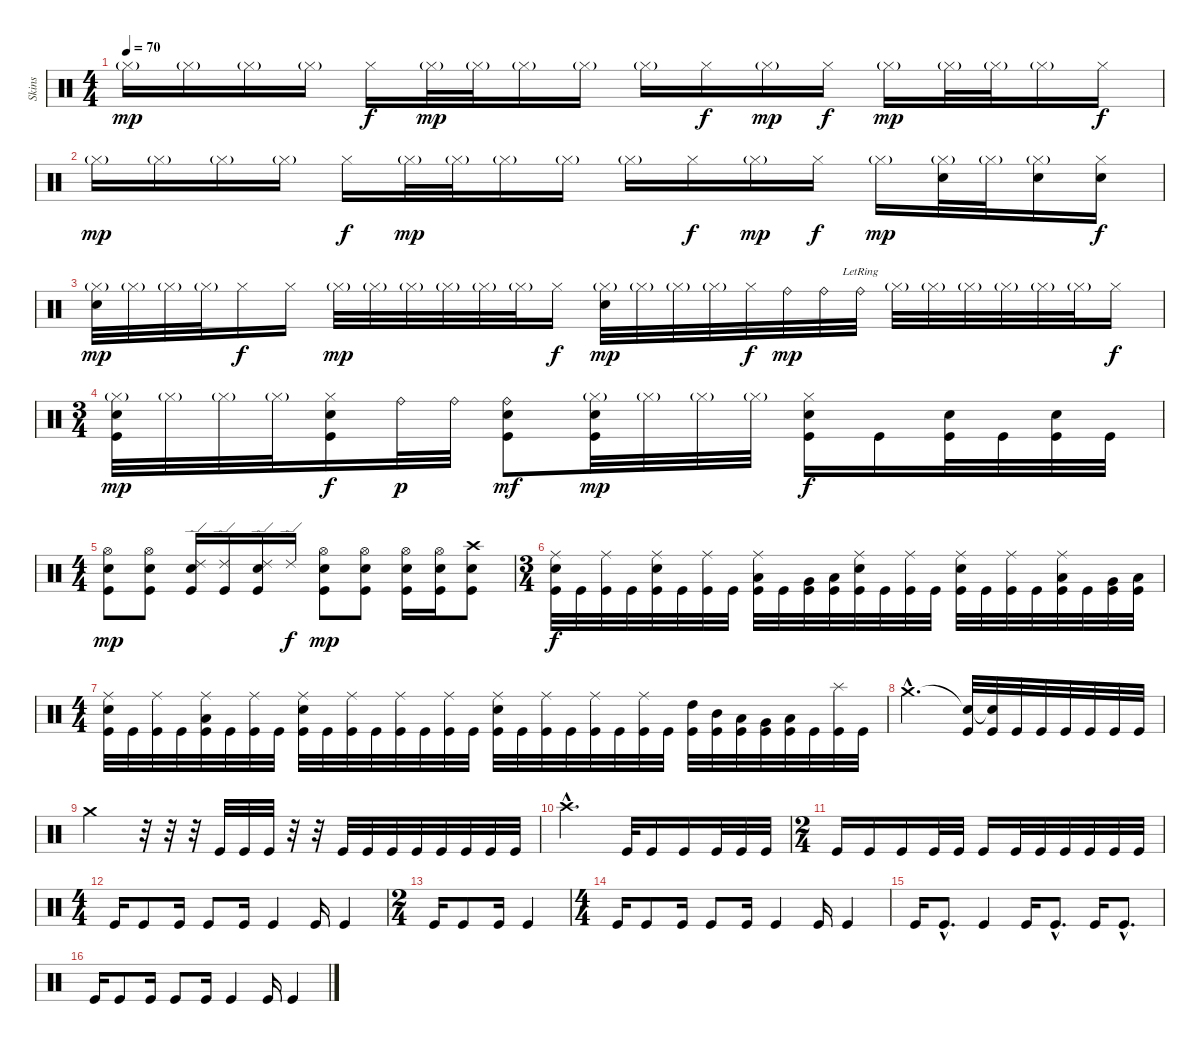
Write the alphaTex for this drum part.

\track ("Skins" "Skins") {instrument percussion}
\staff {score}
\articulation defaults
\ts (4 4)
\tempo 70
\clef neutral
\ks c "Hi-Hat (closed)"{g}.16{dy mp} "Hi-Hat (closed)"{g}.16 "Hi-Hat (closed)"{g}.16 "Hi-Hat (closed)"{g}.16 "Hi-Hat (closed)".16{dy f} "Hi-Hat (closed)"{g}.32{dy mp} "Hi-Hat (closed)"{g}.32 "Hi-Hat (closed)"{g}.16 "Hi-Hat (closed)"{g}.16 "Hi-Hat (closed)"{g}.16 "Hi-Hat (closed)".16{dy f} "Hi-Hat (closed)"{g}.16{dy mp} "Hi-Hat (closed)".16{dy f} "Hi-Hat (closed)"{g}.16{dy mp} "Hi-Hat (closed)"{g}.32 "Hi-Hat (closed)"{g}.32 "Hi-Hat (closed)"{g}.16 "Hi-Hat (closed)".16{dy f}
|
"Hi-Hat (closed)"{g}.16{dy mp} "Hi-Hat (closed)"{g}.16 "Hi-Hat (closed)"{g}.16 "Hi-Hat (closed)"{g}.16 "Hi-Hat (closed)".16{dy f} "Hi-Hat (closed)"{g}.32{dy mp} "Hi-Hat (closed)"{g}.32 "Hi-Hat (closed)"{g}.16 "Hi-Hat (closed)"{g}.16 "Hi-Hat (closed)"{g}.16 "Hi-Hat (closed)".16{dy f} "Hi-Hat (closed)"{g}.16{dy mp} "Hi-Hat (closed)".16{dy f} "Hi-Hat (closed)"{g}.16{dy mp} ("Hi-Hat (closed)"{g} "Electric Snare (hit)").32 "Hi-Hat (closed)"{g}.32 ("Hi-Hat (closed)"{g} "Electric Snare (hit)").16 ("Hi-Hat (closed)" "Snare (hit) 2").16{dy f} |
("Hi-Hat (closed)"{g} "Snare (hit) 2").32{dy mp} "Hi-Hat (closed)"{g}.32 "Hi-Hat (closed)"{g}.32 "Hi-Hat (closed)"{g}.32 "Hi-Hat (closed)".16{dy f} "Hi-Hat (closed)".16 "Hi-Hat (closed)"{g}.32{dy mp} "Hi-Hat (closed)"{g}.32 "Hi-Hat (closed)"{g}.32 "Hi-Hat (closed)"{g}.32 "Hi-Hat (closed)"{g}.32 "Hi-Hat (closed)"{g}.32 "Hi-Hat (closed)".16{dy f} ("Hi-Hat (closed)"{g} "Snare (hit) 2").32{dy mp} "Hi-Hat (closed)"{g}.32 "Hi-Hat (closed)"{g}.32 "Hi-Hat (closed)"{g}.32 "Hi-Hat (closed)".32{dy f} "Ride (bell)".32{dy mp} "Ride (bell)".32 "Ride (bell)"{lr}.32 "Hi-Hat (closed)"{g}.32 "Hi-Hat (closed)"{g}.32 "Hi-Hat (closed)"{g}.32 "Hi-Hat (closed)"{g}.32 "Hi-Hat (closed)"{g}.32 "Hi-Hat (closed)"{g}.32 "Hi-Hat (closed)".16{dy f} |
\ts (3 4)
("Hi-Hat (closed)"{g} "Snare (hit) 2" "Kick (hit)").32{dy mp} "Hi-Hat (closed)"{g}.32 "Hi-Hat (closed)"{g}.32 "Hi-Hat (closed)"{g}.32 ("Hi-Hat (closed)" "Snare (hit) 2" "Kick (hit)").16{dy f} "Ride (bell)".32{dy p} "Ride (bell)".32 ("Ride (bell)" "Snare (hit) 2" "Kick (hit)").8{dy mf} ("Hi-Hat (closed)"{g} "Snare (hit) 2" "Kick (hit)").32{dy mp} "Hi-Hat (closed)"{g}.32 "Hi-Hat (closed)"{g}.32 "Hi-Hat (closed)"{g}.32 ("Hi-Hat (closed)" "Snare (hit) 2" "Kick (hit)").16{dy f} "Kick (hit)".16 ("Snare (hit) 2" "Kick (hit)").32 "Kick (hit)".32 ("Snare (hit) 2" "Kick (hit)").32 "Kick (hit)".32 |
\ts (4 4)
("Hi-Hat (open)" "Snare (hit) 2" "Kick (hit)").8{dy mp} ("Hi-Hat (open)" "Snare (hit) 2" "Kick (hit)").8 ("Ride (edge) 2" "Electric Snare (hit)" "Kick (hit)").16 ("Ride (edge) 2" "Kick (hit)").16 ("Ride (edge) 2" "Electric Snare (hit)" "Kick (hit)").16 "Ride (edge) 2".16{dy f} ("Hi-Hat (open)" "Snare (hit) 2" "Kick (hit)").8{dy mp} ("Hi-Hat (open)" "Snare (hit) 2" "Kick (hit)").8 ("Hi-Hat (open)" "Snare (hit) 2" "Kick (hit)").16 ("Hi-Hat (open)" "Snare (hit) 2" "Kick (hit)").16 ("Crash high (hit)" "Electric Snare (hit)" "Kick (hit)").8 |
\ts (3 4)
("Ride (middle)" "Snare (hit) 2" "Kick (hit)").32{dy f} "Kick (hit)".32 ("Ride (middle)" "Kick (hit)").32 "Kick (hit)".32 ("Ride (middle)" "Snare (hit) 2" "Kick (hit)").32 "Kick (hit)".32 ("Ride (middle)" "Kick (hit)").32 "Kick (hit)".32 ("Ride (middle)" "Low Tom (hit)" "Kick (hit)").32 "Kick (hit)".32 ("Very Low Tom (hit)" "Kick (hit)").32 ("Low Floor Tom (hit)" "Kick (hit)").32 ("Ride (middle)" "Snare (hit) 2" "Kick (hit)").32 "Kick (hit)".32 ("Ride (middle)" "Kick (hit)").32 "Kick (hit)".32 ("Ride (middle)" "Snare (hit) 2" "Kick (hit)").32 "Kick (hit)".32 ("Ride (middle)" "Kick (hit)").32 "Kick (hit)".32 ("Ride (middle)" "Low Tom (hit)" "Kick (hit)").32 "Kick (hit)".32 ("Very Low Tom (hit)" "Kick (hit)").32 ("Low Floor Tom (hit)" "Kick (hit)").32 |
\ts (4 4)
("Ride (middle)" "Electric Snare (hit)" "Kick (hit)").32 "Kick (hit)".32 ("Ride (middle)" "Kick (hit)").32 "Kick (hit)".32 ("Ride (middle)" "Low Floor Tom (hit)" "Kick (hit)").32 "Kick (hit)".32 ("Ride (middle)" "Kick (hit)").32 "Kick (hit)".32 ("Ride (middle)" "Electric Snare (hit)" "Kick (hit)").32 "Kick (hit)".32 ("Ride (middle)" "Kick (hit)").32 "Kick (hit)".32 ("Ride (middle)" "Kick (hit)").32 "Kick (hit)".32 ("Ride (middle)" "Kick (hit)").32 "Kick (hit)".32 ("Ride (middle)" "Electric Snare (hit)" "Kick (hit)").32 "Kick (hit)".32 ("Ride (middle)" "Kick (hit)").32 "Kick (hit)".32 ("Ride (middle)" "Kick (hit)").32 "Kick (hit)".32 ("Ride (middle)" "Kick (hit)").32 "Kick (hit)".32 ("High Tom (hit)" "Kick (hit)").32 ("Mid Tom (hit)" "Kick (hit)").32 ("Low Tom (hit)" "Kick (hit)").32 ("Very Low Tom (hit)" "Kick (hit)").32 ("Low Floor Tom (hit)" "Kick (hit)").32 "Kick (hit)".32 ("Splash (hit)" "Kick (hit)").32 "Kick (hit)".32 |
"Crash medium (hit)"{hac}.2{d} ("Snare (hit)"{t} "Kick (hit)").32 ("Snare (hit)"{t} "Kick (hit)").32 "Kick (hit)".32 "Kick (hit)".32 "Kick (hit)".32 "Kick (hit)".32 "Kick (hit)".32 "Kick (hit)".32 |
"Crash medium (hit)".2 r.32 r.32 r.32 "Kick (hit)".32 "Kick (hit)".32 "Kick (hit)".32 r.32 r.32 "Kick (hit)".32 "Kick (hit)".32 "Kick (hit)".32 "Kick (hit)".32 "Kick (hit)".32 "Kick (hit)".32 "Kick (hit)".32 "Kick (hit)".32 |
"Crash high (hit)"{hac}.2{d} "Kick (hit)".32 "Kick (hit)".16 "Kick (hit)".16 "Kick (hit)".32 "Kick (hit)".32 "Kick (hit)".32 |
\ts (2 4)
"Kick (hit)".16 "Kick (hit)".16 "Kick (hit)".16 "Kick (hit)".32 "Kick (hit)".32 "Kick (hit)".16 "Kick (hit)".32 "Kick (hit)".32 "Kick (hit)".32 "Kick (hit)".32 "Kick (hit)".32 "Kick (hit)".32 |
\ts (4 4)
"Kick (hit)".16 "Kick (hit)".8 "Kick (hit)".16 "Kick (hit)".8 "Kick (hit)".16 "Kick (hit)".4 "Kick (hit)".16 "Kick (hit)".4 |
\ts (2 4)
"Kick (hit)".16 "Kick (hit)".8 "Kick (hit)".16 "Kick (hit)".4 |
\ts (4 4)
"Kick (hit)".16 "Kick (hit)".8 "Kick (hit)".16 "Kick (hit)".8 "Kick (hit)".16 "Kick (hit)".4 "Kick (hit)".16 "Kick (hit)".4 |
"Kick (hit)".16 "Kick (hit)"{hac}.8{d} "Kick (hit)".4 "Kick (hit)".16 "Kick (hit)"{hac}.8{d} "Kick (hit)".16 "Kick (hit)"{hac}.8{d} |
"Kick (hit)".16 "Kick (hit)".8 "Kick (hit)".16 "Kick (hit)".8 "Kick (hit)".16 "Kick (hit)".4 "Kick (hit)".16 "Kick (hit)".4
